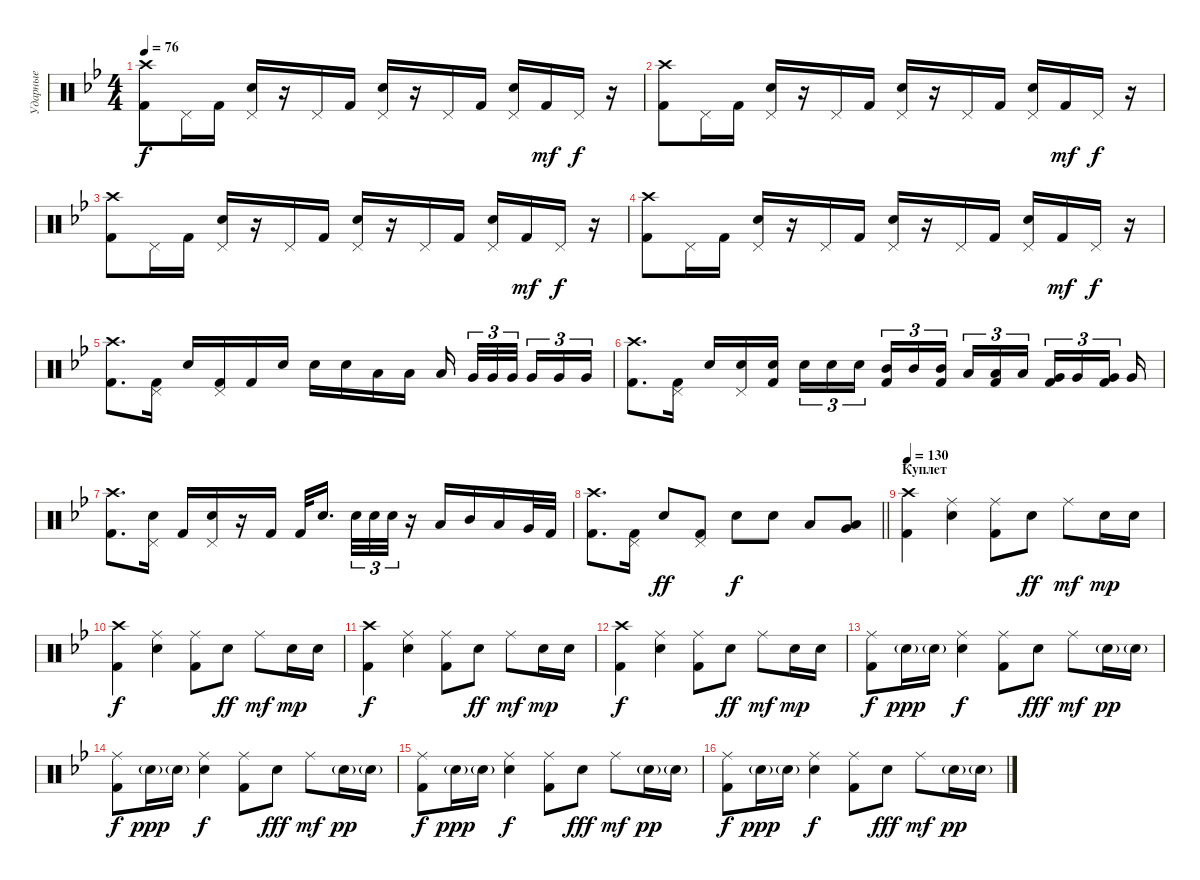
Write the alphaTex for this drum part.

\track ("Ударные" "Ударные") {instrument percussion}
\staff {score}
\articulation defaults
\ts (4 4)
\tempo 76
\clef neutral
\ks gminor
("Crash high (hit)" "Kick (hit) 2").8{dy f} "Pedal Hi-Hat (hit)".16 "Kick (hit) 2".16 ("Pedal Hi-Hat (hit)" "Snare (hit) 2").16 r.16 "Pedal Hi-Hat (hit)".16 "Kick (hit) 2".16 ("Pedal Hi-Hat (hit)" "Snare (hit) 2").16 r.16 "Pedal Hi-Hat (hit)".16 "Kick (hit) 2".16 ("Pedal Hi-Hat (hit)" "Snare (hit) 2").16 "Kick (hit) 2".16{dy mf} "Pedal Hi-Hat (hit)".16{dy f} r.16 |
("Crash high (hit)" "Kick (hit) 2").8 "Pedal Hi-Hat (hit)".16 "Kick (hit) 2".16 ("Pedal Hi-Hat (hit)" "Snare (hit) 2").16 r.16 "Pedal Hi-Hat (hit)".16 "Kick (hit) 2".16 ("Pedal Hi-Hat (hit)" "Snare (hit) 2").16 r.16 "Pedal Hi-Hat (hit)".16 "Kick (hit) 2".16 ("Pedal Hi-Hat (hit)" "Snare (hit) 2").16 "Kick (hit) 2".16{dy mf} "Pedal Hi-Hat (hit)".16{dy f} r.16 |
("Crash high (hit)" "Kick (hit) 2").8 "Pedal Hi-Hat (hit)".16 "Kick (hit) 2".16 ("Pedal Hi-Hat (hit)" "Snare (hit) 2").16 r.16 "Pedal Hi-Hat (hit)".16 "Kick (hit) 2".16 ("Pedal Hi-Hat (hit)" "Snare (hit) 2").16 r.16 "Pedal Hi-Hat (hit)".16 "Kick (hit) 2".16 ("Pedal Hi-Hat (hit)" "Snare (hit) 2").16 "Kick (hit) 2".16{dy mf} "Pedal Hi-Hat (hit)".16{dy f} r.16 |
("Crash high (hit)" "Kick (hit) 2").8 "Pedal Hi-Hat (hit)".16 "Kick (hit) 2".16 ("Pedal Hi-Hat (hit)" "Snare (hit) 2").16 r.16 "Pedal Hi-Hat (hit)".16 "Kick (hit) 2".16 ("Pedal Hi-Hat (hit)" "Snare (hit) 2").16 r.16 "Pedal Hi-Hat (hit)".16 "Kick (hit) 2".16 ("Pedal Hi-Hat (hit)" "Snare (hit) 2").16 "Kick (hit) 2".16{dy mf} "Pedal Hi-Hat (hit)".16{dy f} r.16 |
("Crash high (hit)" "Kick (hit) 2").8{d} ("Pedal Hi-Hat (hit)" "Kick (hit) 2").16 "Snare (hit) 2".16 ("Pedal Hi-Hat (hit)" "Kick (hit) 2").16 "Kick (hit) 2".16 "Snare (hit) 2".16 "Snare (hit) 2".16 "Snare (hit) 2".16 "Low Tom (hit)".16 "Low Tom (hit)".16 "Low Tom (hit)".16{beam splitsecondary} "Very Low Tom (hit)".32{tu (3 2)} "Very Low Tom (hit)".32{tu (3 2)} "Very Low Tom (hit)".32{tu (3 2) beam splitsecondary} "Very Low Tom (hit)".16{tu (3 2)} "Very Low Tom (hit)".16{tu (3 2)} "Very Low Tom (hit)".16{tu (3 2)} |
("Crash high (hit)" "Kick (hit) 2").8{d} ("Pedal Hi-Hat (hit)" "Kick (hit) 2").16 "Snare (hit) 2".16 ("Pedal Hi-Hat (hit)" "Snare (hit) 2").16 ("Snare (hit) 2" "Kick (hit) 2").16{beam splitsecondary} "Snare (hit) 2".16{tu (3 2)} "Snare (hit) 2".16{tu (3 2)} "Snare (hit) 2".16{tu (3 2) beam splitsecondary} ("Mid Tom (hit)" "Kick (hit) 2").16{tu (3 2)} "Mid Tom (hit)".16{tu (3 2)} ("Mid Tom (hit)" "Kick (hit) 2").16{tu (3 2) beam splitsecondary} "Low Tom (hit)".16{tu (3 2)} ("Low Tom (hit)" "Kick (hit) 2").16{tu (3 2)} "Low Tom (hit)".16{tu (3 2) beam splitsecondary} ("Very Low Tom (hit)" "Kick (hit) 2").16{tu (3 2)} "Very Low Tom (hit)".16{tu (3 2)} ("Very Low Tom (hit)" "Kick (hit) 2").16{tu (3 2) beam splitsecondary} "Very Low Tom (hit)".16 |
("Crash high (hit)" "Kick (hit) 2").8{d} ("Pedal Hi-Hat (hit)" "Snare (hit) 2").16 "Kick (hit) 2".16 ("Pedal Hi-Hat (hit)" "Snare (hit) 2").16 r.16 "Kick (hit) 2".16 "Kick (hit) 2".32 "Snare (hit) 2".16{d beam splitsecondary} "Snare (hit) 2".32{tu (3 2)} "Snare (hit) 2".32{tu (3 2)} "Snare (hit) 2".32{tu (3 2)} r.16 "Low Tom (hit)".16 "Mid Tom (hit)".16 "Low Tom (hit)".16 "Very Low Tom (hit)".32 "Kick (hit) 2".32 |
\barLineRight lightlight
("Crash high (hit)" "Kick (hit) 2").8{d} ("Pedal Hi-Hat (hit)" "Kick (hit) 2").16 "Snare (hit) 2".8{dy ff} ("Pedal Hi-Hat (hit)" "Kick (hit) 2").8 "Snare (hit) 2".8{dy f} "Snare (hit) 2".8 "Low Tom (hit)".8 ("Low Tom (hit)" "Very Low Tom (hit)").8 |
\section ("" "Куплет")
\tempo 130
("Crash high (hit)" "Kick (hit) 2").4 ("Ride (middle)" "Snare (hit) 2").4 ("Ride (middle)" "Kick (hit) 2").8 "Snare (hit) 2".8{dy ff} "Ride (middle)".8{dy mf} "Snare (hit) 2".16{dy mp} "Snare (hit) 2".16 |
("Crash high (hit)" "Kick (hit) 2").4{dy f} ("Ride (middle)" "Snare (hit) 2").4 ("Ride (middle)" "Kick (hit) 2").8 "Snare (hit) 2".8{dy ff} "Ride (middle)".8{dy mf} "Snare (hit) 2".16{dy mp} "Snare (hit) 2".16 |
("Crash high (hit)" "Kick (hit) 2").4{dy f} ("Ride (middle)" "Snare (hit) 2").4 ("Ride (middle)" "Kick (hit) 2").8 "Snare (hit) 2".8{dy ff} "Ride (middle)".8{dy mf} "Snare (hit) 2".16{dy mp} "Snare (hit) 2".16 |
("Crash high (hit)" "Kick (hit) 2").4{dy f} ("Ride (middle)" "Snare (hit) 2").4 ("Ride (middle)" "Kick (hit) 2").8 "Snare (hit) 2".8{dy ff} "Ride (middle)".8{dy mf} "Snare (hit) 2".16{dy mp} "Snare (hit) 2".16 |
("Ride (middle)" "Kick (hit) 2").8{dy f} "Snare (hit) 2"{g}.16{dy ppp} "Snare (hit) 2"{g}.16 ("Ride (middle)" "Snare (hit) 2").4{dy f} ("Ride (middle)" "Kick (hit) 2").8 "Snare (hit) 2".8{dy fff} "Ride (middle)".8{dy mf} "Snare (hit) 2"{g}.16{dy pp} "Snare (hit) 2"{g}.16 |
("Ride (middle)" "Kick (hit) 2").8{dy f} "Snare (hit) 2"{g}.16{dy ppp} "Snare (hit) 2"{g}.16 ("Ride (middle)" "Snare (hit) 2").4{dy f} ("Ride (middle)" "Kick (hit) 2").8 "Snare (hit) 2".8{dy fff} "Ride (middle)".8{dy mf} "Snare (hit) 2"{g}.16{dy pp} "Snare (hit) 2"{g}.16 |
("Ride (middle)" "Kick (hit) 2").8{dy f} "Snare (hit) 2"{g}.16{dy ppp} "Snare (hit) 2"{g}.16 ("Ride (middle)" "Snare (hit) 2").4{dy f} ("Ride (middle)" "Kick (hit) 2").8 "Snare (hit) 2".8{dy fff} "Ride (middle)".8{dy mf} "Snare (hit) 2"{g}.16{dy pp} "Snare (hit) 2"{g}.16 |
("Ride (middle)" "Kick (hit) 2").8{dy f} "Snare (hit) 2"{g}.16{dy ppp} "Snare (hit) 2"{g}.16 ("Ride (middle)" "Snare (hit) 2").4{dy f} ("Ride (middle)" "Kick (hit) 2").8 "Snare (hit) 2".8{dy fff} "Ride (middle)".8{dy mf} "Snare (hit) 2"{g}.16{dy pp} "Snare (hit) 2"{g}.16
